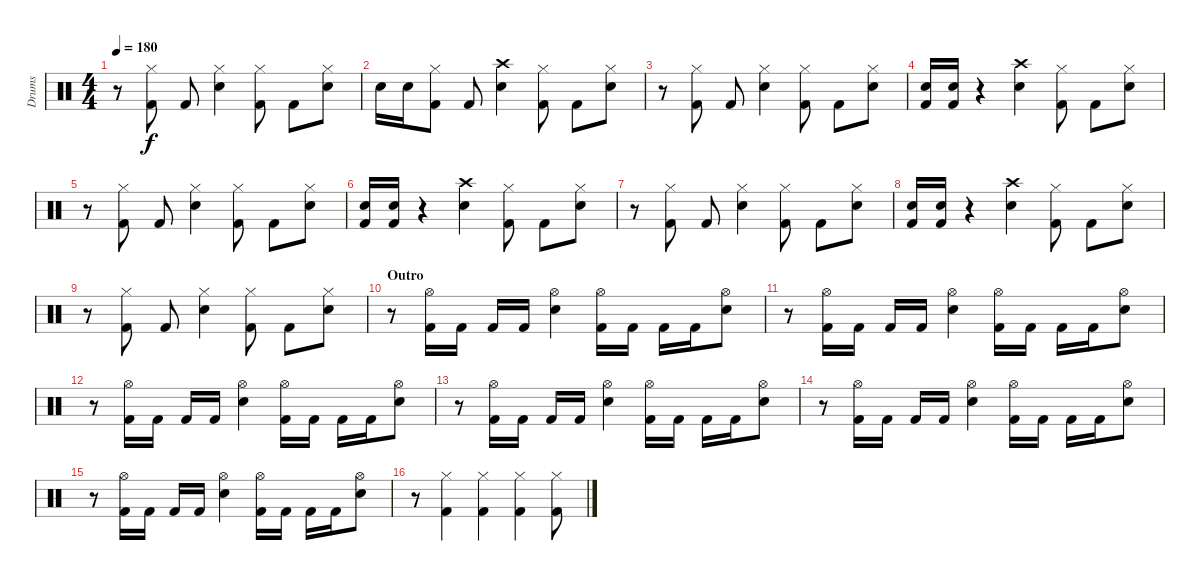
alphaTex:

\track ("Drums" "Drums") {instrument percussion}
\staff {score}
\articulation defaults
\ts (4 4)
\tempo 180
\clef neutral
\ks c
r.8{dy f} ("Hi-Hat (closed)" "Kick (hit) 2").8 "Kick (hit) 2".8 ("Hi-Hat (closed)" "Snare (hit) 2").4 ("Hi-Hat (closed)" "Kick (hit) 2").8 "Kick (hit) 2".8 ("Hi-Hat (closed)" "Snare (hit) 2").8 |
"Snare (hit) 2".16 "Snare (hit) 2".16 ("Hi-Hat (closed)" "Kick (hit) 2").8 "Kick (hit) 2".8 ("Crash high (hit)" "Snare (hit) 2").4 ("Hi-Hat (closed)" "Kick (hit) 2").8 "Kick (hit) 2".8 ("Hi-Hat (closed)" "Snare (hit) 2").8 |
r.8 ("Hi-Hat (closed)" "Kick (hit) 2").8 "Kick (hit) 2".8 ("Hi-Hat (closed)" "Snare (hit) 2").4 ("Hi-Hat (closed)" "Kick (hit) 2").8 "Kick (hit) 2".8 ("Hi-Hat (closed)" "Snare (hit) 2").8 |
("Snare (hit) 2" "Kick (hit) 2").16 ("Snare (hit) 2" "Kick (hit) 2").16 r.4 ("Crash high (hit)" "Snare (hit) 2").4 ("Hi-Hat (closed)" "Kick (hit) 2").8 "Kick (hit) 2".8 ("Hi-Hat (closed)" "Snare (hit) 2").8 |
r.8 ("Hi-Hat (closed)" "Kick (hit) 2").8 "Kick (hit) 2".8 ("Hi-Hat (closed)" "Snare (hit) 2").4 ("Hi-Hat (closed)" "Kick (hit) 2").8 "Kick (hit) 2".8 ("Hi-Hat (closed)" "Snare (hit) 2").8 |
("Snare (hit) 2" "Kick (hit) 2").16 ("Snare (hit) 2" "Kick (hit) 2").16 r.4 ("Crash high (hit)" "Snare (hit) 2").4 ("Hi-Hat (closed)" "Kick (hit) 2").8 "Kick (hit) 2".8 ("Hi-Hat (closed)" "Snare (hit) 2").8 |
r.8 ("Hi-Hat (closed)" "Kick (hit) 2").8 "Kick (hit) 2".8 ("Hi-Hat (closed)" "Snare (hit) 2").4 ("Hi-Hat (closed)" "Kick (hit) 2").8 "Kick (hit) 2".8 ("Hi-Hat (closed)" "Snare (hit) 2").8 |
("Snare (hit) 2" "Kick (hit) 2").16 ("Snare (hit) 2" "Kick (hit) 2").16 r.4 ("Crash high (hit)" "Snare (hit) 2").4 ("Hi-Hat (closed)" "Kick (hit) 2").8 "Kick (hit) 2".8 ("Hi-Hat (closed)" "Snare (hit) 2").8 |
r.8 ("Hi-Hat (closed)" "Kick (hit) 2").8 "Kick (hit) 2".8 ("Hi-Hat (closed)" "Snare (hit) 2").4 ("Hi-Hat (closed)" "Kick (hit) 2").8 "Kick (hit) 2".8 ("Hi-Hat (closed)" "Snare (hit) 2").8 |
\section ("" "Outro")
r.8 ("Hi-Hat (open)" "Kick (hit) 2").16 "Kick (hit) 2".16 "Kick (hit) 2".16 "Kick (hit) 2".16 ("Hi-Hat (open)" "Snare (hit) 2").4 ("Hi-Hat (open)" "Kick (hit) 2").16 "Kick (hit) 2".16 "Kick (hit) 2".16 "Kick (hit) 2".16 ("Hi-Hat (open)" "Snare (hit) 2").8 |
r.8 ("Hi-Hat (open)" "Kick (hit) 2").16 "Kick (hit) 2".16 "Kick (hit) 2".16 "Kick (hit) 2".16 ("Hi-Hat (open)" "Snare (hit) 2").4 ("Hi-Hat (open)" "Kick (hit) 2").16 "Kick (hit) 2".16 "Kick (hit) 2".16 "Kick (hit) 2".16 ("Hi-Hat (open)" "Snare (hit) 2").8 |
r.8 ("Hi-Hat (open)" "Kick (hit) 2").16 "Kick (hit) 2".16 "Kick (hit) 2".16 "Kick (hit) 2".16 ("Hi-Hat (open)" "Snare (hit) 2").4 ("Hi-Hat (open)" "Kick (hit) 2").16 "Kick (hit) 2".16 "Kick (hit) 2".16 "Kick (hit) 2".16 ("Hi-Hat (open)" "Snare (hit) 2").8 |
r.8 ("Hi-Hat (open)" "Kick (hit) 2").16 "Kick (hit) 2".16 "Kick (hit) 2".16 "Kick (hit) 2".16 ("Hi-Hat (open)" "Snare (hit) 2").4 ("Hi-Hat (open)" "Kick (hit) 2").16 "Kick (hit) 2".16 "Kick (hit) 2".16 "Kick (hit) 2".16 ("Hi-Hat (open)" "Snare (hit) 2").8 |
r.8 ("Hi-Hat (open)" "Kick (hit) 2").16 "Kick (hit) 2".16 "Kick (hit) 2".16 "Kick (hit) 2".16 ("Hi-Hat (open)" "Snare (hit) 2").4 ("Hi-Hat (open)" "Kick (hit) 2").16 "Kick (hit) 2".16 "Kick (hit) 2".16 "Kick (hit) 2".16 ("Hi-Hat (open)" "Snare (hit) 2").8 |
r.8 ("Hi-Hat (open)" "Kick (hit) 2").16 "Kick (hit) 2".16 "Kick (hit) 2".16 "Kick (hit) 2".16 ("Hi-Hat (open)" "Snare (hit) 2").4 ("Hi-Hat (open)" "Kick (hit) 2").16 "Kick (hit) 2".16 "Kick (hit) 2".16 "Kick (hit) 2".16 ("Hi-Hat (open)" "Snare (hit) 2").8 |
r.8 ("Hi-Hat (closed)" "Kick (hit) 2").4 ("Hi-Hat (closed)" "Kick (hit) 2").4 ("Hi-Hat (closed)" "Kick (hit) 2").4 ("Hi-Hat (closed)" "Kick (hit) 2").8
